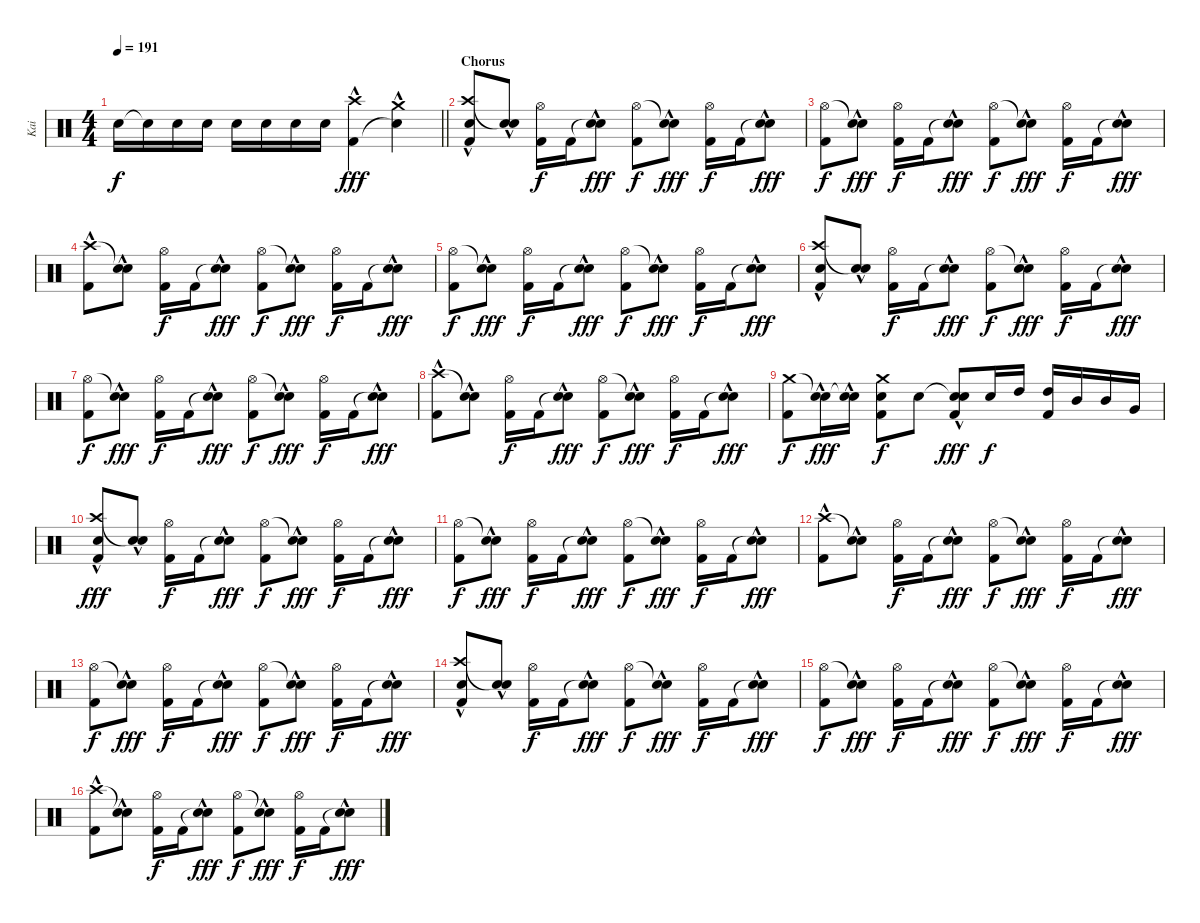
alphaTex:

\track ("Kai" "Kai") {instrument percussion}
\staff {score}
\articulation defaults
\ts (4 4)
\tempo 191
\clef neutral
\barLineRight lightlight
\ks c "Snare (hit) 2".16{dy f} "Snare (hit) 2"{t}.16 "Snare (hit) 2".16 "Snare (hit) 2".16 "Snare (hit) 2".16 "Snare (hit) 2".16 "Snare (hit) 2".16 "Snare (hit) 2".16
("Crash high (hit)" "Kick (hit) 2"{hac}).4{dy fff} ("Crash medium (hit)"{hac} "Snare (hit) 2"{t}).4 |
\section ("" "Chorus")
("Crash high (hit)"{hac} "Snare (hit) 2" "Kick (hit) 2").8 ("Snare (hit)"{t} "Snare (hit) 2"{hac}).8 ("Hi-Hat (open)" "Kick (hit) 2").16{dy f} "Kick (hit) 2".16 ("Snare (hit)"{t} "Snare (hit) 2"{hac}).8{dy fff} ("Hi-Hat (open)" "Kick (hit) 2").8{dy f} ("Snare (hit)"{t} "Snare (hit) 2"{hac}).8{dy fff} ("Hi-Hat (open)" "Kick (hit) 2").16{dy f} "Kick (hit) 2".16 ("Snare (hit)"{t} "Snare (hit) 2"{hac}).8{dy fff} |
("Hi-Hat (open)" "Kick (hit) 2").8{dy f} ("Snare (hit)"{t} "Snare (hit) 2"{hac}).8{dy fff} ("Hi-Hat (open)" "Kick (hit) 2").16{dy f} "Kick (hit) 2".16 ("Snare (hit)"{t} "Snare (hit) 2"{hac}).8{dy fff} ("Hi-Hat (open)" "Kick (hit) 2").8{dy f} ("Snare (hit)"{t} "Snare (hit) 2"{hac}).8{dy fff} ("Hi-Hat (open)" "Kick (hit) 2").16{dy f} "Kick (hit) 2".16 ("Snare (hit)"{t} "Snare (hit) 2"{hac}).8{dy fff} |
("Crash high (hit)"{hac} "Kick (hit) 2").8 ("Snare (hit)"{t} "Snare (hit) 2"{hac}).8 ("Hi-Hat (open)" "Kick (hit) 2").16{dy f} "Kick (hit) 2".16 ("Snare (hit)"{t} "Snare (hit) 2"{hac}).8{dy fff} ("Hi-Hat (open)" "Kick (hit) 2").8{dy f} ("Snare (hit)"{t} "Snare (hit) 2"{hac}).8{dy fff} ("Hi-Hat (open)" "Kick (hit) 2").16{dy f} "Kick (hit) 2".16 ("Snare (hit)"{t} "Snare (hit) 2"{hac}).8{dy fff} |
("Hi-Hat (open)" "Kick (hit) 2").8{dy f} ("Snare (hit)"{t} "Snare (hit) 2"{hac}).8{dy fff} ("Hi-Hat (open)" "Kick (hit) 2").16{dy f} "Kick (hit) 2".16 ("Snare (hit)"{t} "Snare (hit) 2"{hac}).8{dy fff} ("Hi-Hat (open)" "Kick (hit) 2").8{dy f} ("Snare (hit)"{t} "Snare (hit) 2"{hac}).8{dy fff} ("Hi-Hat (open)" "Kick (hit) 2").16{dy f} "Kick (hit) 2".16 ("Snare (hit)"{t} "Snare (hit) 2"{hac}).8{dy fff} |
("Crash high (hit)"{hac} "Snare (hit) 2" "Kick (hit) 2").8 ("Snare (hit)"{t} "Snare (hit) 2"{hac}).8 ("Hi-Hat (open)" "Kick (hit) 2").16{dy f} "Kick (hit) 2".16 ("Snare (hit)"{t} "Snare (hit) 2"{hac}).8{dy fff} ("Hi-Hat (open)" "Kick (hit) 2").8{dy f} ("Snare (hit)"{t} "Snare (hit) 2"{hac}).8{dy fff} ("Hi-Hat (open)" "Kick (hit) 2").16{dy f} "Kick (hit) 2".16 ("Snare (hit)"{t} "Snare (hit) 2"{hac}).8{dy fff} |
("Hi-Hat (open)" "Kick (hit) 2").8{dy f} ("Snare (hit)"{t} "Snare (hit) 2"{hac}).8{dy fff} ("Hi-Hat (open)" "Kick (hit) 2").16{dy f} "Kick (hit) 2".16 ("Snare (hit)"{t} "Snare (hit) 2"{hac}).8{dy fff} ("Hi-Hat (open)" "Kick (hit) 2").8{dy f} ("Snare (hit)"{t} "Snare (hit) 2"{hac}).8{dy fff} ("Hi-Hat (open)" "Kick (hit) 2").16{dy f} "Kick (hit) 2".16 ("Snare (hit)"{t} "Snare (hit) 2"{hac}).8{dy fff} |
("Crash high (hit)"{hac} "Kick (hit) 2").8 ("Snare (hit)"{t} "Snare (hit) 2"{hac}).8 ("Hi-Hat (open)" "Kick (hit) 2").16{dy f} "Kick (hit) 2".16 ("Snare (hit)"{t} "Snare (hit) 2"{hac}).8{dy fff} ("Hi-Hat (open)" "Kick (hit) 2").8{dy f} ("Snare (hit)"{t} "Snare (hit) 2"{hac}).8{dy fff} ("Hi-Hat (open)" "Kick (hit) 2").16{dy f} "Kick (hit) 2".16 ("Snare (hit)"{t} "Snare (hit) 2"{hac}).8{dy fff} |
("Crash medium (hit)" "Kick (hit) 2").8{dy f} ("Snare (hit)"{t} "Snare (hit) 2"{hac}).16{dy fff} ("Snare (hit)"{t} "Snare (hit) 2"{hac}).16 ("Crash medium (hit)" "Snare (hit) 2" "Kick (hit) 2").8{dy f} "Snare (hit) 2".8 ("Snare (hit)"{t} "Snare (hit) 2"{hac} "Kick (hit) 2").8{dy fff} "Snare (hit) 2".16{dy f} "High Tom (hit)".16 ("High Tom (hit)" "Kick (hit) 2").16 "Mid Tom (hit)".16 "Mid Tom (hit)".16 "Very Low Tom (hit)".16 |
("Crash high (hit)" "Snare (hit) 2"{hac} "Kick (hit) 2").8{dy fff} ("Snare (hit)"{t} "Snare (hit) 2"{hac}).8 ("Hi-Hat (open)" "Kick (hit) 2").16{dy f} "Kick (hit) 2".16 ("Snare (hit)"{t} "Snare (hit) 2"{hac}).8{dy fff} ("Hi-Hat (open)" "Kick (hit) 2").8{dy f} ("Snare (hit)"{t} "Snare (hit) 2"{hac}).8{dy fff} ("Hi-Hat (open)" "Kick (hit) 2").16{dy f} "Kick (hit) 2".16 ("Snare (hit)"{t} "Snare (hit) 2"{hac}).8{dy fff} |
("Hi-Hat (open)" "Kick (hit) 2").8{dy f} ("Snare (hit)"{t} "Snare (hit) 2"{hac}).8{dy fff} ("Hi-Hat (open)" "Kick (hit) 2").16{dy f} "Kick (hit) 2".16 ("Snare (hit)"{t} "Snare (hit) 2"{hac}).8{dy fff} ("Hi-Hat (open)" "Kick (hit) 2").8{dy f} ("Snare (hit)"{t} "Snare (hit) 2"{hac}).8{dy fff} ("Hi-Hat (open)" "Kick (hit) 2").16{dy f} "Kick (hit) 2".16 ("Snare (hit)"{t} "Snare (hit) 2"{hac}).8{dy fff} |
("Crash high (hit)"{hac} "Kick (hit) 2").8 ("Snare (hit)"{t} "Snare (hit) 2"{hac}).8 ("Hi-Hat (open)" "Kick (hit) 2").16{dy f} "Kick (hit) 2".16 ("Snare (hit)"{t} "Snare (hit) 2"{hac}).8{dy fff} ("Hi-Hat (open)" "Kick (hit) 2").8{dy f} ("Snare (hit)"{t} "Snare (hit) 2"{hac}).8{dy fff} ("Hi-Hat (open)" "Kick (hit) 2").16{dy f} "Kick (hit) 2".16 ("Snare (hit)"{t} "Snare (hit) 2"{hac}).8{dy fff} |
("Hi-Hat (open)" "Kick (hit) 2").8{dy f} ("Snare (hit)"{t} "Snare (hit) 2"{hac}).8{dy fff} ("Hi-Hat (open)" "Kick (hit) 2").16{dy f} "Kick (hit) 2".16 ("Snare (hit)"{t} "Snare (hit) 2"{hac}).8{dy fff} ("Hi-Hat (open)" "Kick (hit) 2").8{dy f} ("Snare (hit)"{t} "Snare (hit) 2"{hac}).8{dy fff} ("Hi-Hat (open)" "Kick (hit) 2").16{dy f} "Kick (hit) 2".16 ("Snare (hit)"{t} "Snare (hit) 2"{hac}).8{dy fff} |
("Crash high (hit)"{hac} "Snare (hit) 2" "Kick (hit) 2").8 ("Snare (hit)"{t} "Snare (hit) 2"{hac}).8 ("Hi-Hat (open)" "Kick (hit) 2").16{dy f} "Kick (hit) 2".16 ("Snare (hit)"{t} "Snare (hit) 2"{hac}).8{dy fff} ("Hi-Hat (open)" "Kick (hit) 2").8{dy f} ("Snare (hit)"{t} "Snare (hit) 2"{hac}).8{dy fff} ("Hi-Hat (open)" "Kick (hit) 2").16{dy f} "Kick (hit) 2".16 ("Snare (hit)"{t} "Snare (hit) 2"{hac}).8{dy fff} |
("Hi-Hat (open)" "Kick (hit) 2").8{dy f} ("Snare (hit)"{t} "Snare (hit) 2"{hac}).8{dy fff} ("Hi-Hat (open)" "Kick (hit) 2").16{dy f} "Kick (hit) 2".16 ("Snare (hit)"{t} "Snare (hit) 2"{hac}).8{dy fff} ("Hi-Hat (open)" "Kick (hit) 2").8{dy f} ("Snare (hit)"{t} "Snare (hit) 2"{hac}).8{dy fff} ("Hi-Hat (open)" "Kick (hit) 2").16{dy f} "Kick (hit) 2".16 ("Snare (hit)"{t} "Snare (hit) 2"{hac}).8{dy fff} |
("Crash high (hit)"{hac} "Kick (hit) 2").8 ("Snare (hit)"{t} "Snare (hit) 2"{hac}).8 ("Hi-Hat (open)" "Kick (hit) 2").16{dy f} "Kick (hit) 2".16 ("Snare (hit)"{t} "Snare (hit) 2"{hac}).8{dy fff} ("Hi-Hat (open)" "Kick (hit) 2").8{dy f} ("Snare (hit)"{t} "Snare (hit) 2"{hac}).8{dy fff} ("Hi-Hat (open)" "Kick (hit) 2").16{dy f} "Kick (hit) 2".16 ("Snare (hit)"{t} "Snare (hit) 2"{hac}).8{dy fff}
